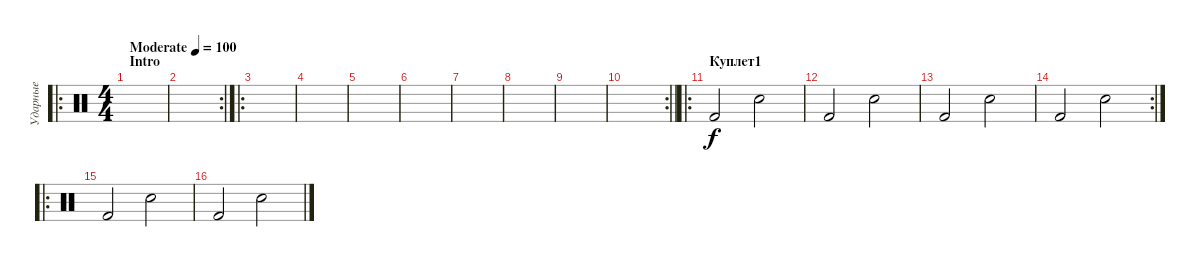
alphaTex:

\track ("Ударные" "Ударные") {instrument percussion}
\staff {score}
\articulation defaults
\ro
\ts (4 4)
\section ("" "Intro")
\tempo (100 "Moderate")
\clef neutral
\ks c
|
\rc 2
|
\ro
|
|
|
|
|
|
|
\rc 2
\barLineRight lightlight
|
\ro
\section ("" "Куплет1")
"Kick (hit) 2".2 "Electric Snare (hit)".2 |
"Kick (hit) 2".2 "Electric Snare (hit)".2 |
"Kick (hit) 2".2 "Electric Snare (hit)".2 |
\rc 2 "Kick (hit) 2".2 "Electric Snare (hit)".2
|
\ro "Kick (hit) 2".2 "Electric Snare (hit)".2
|
"Kick (hit) 2".2 "Electric Snare (hit)".2
